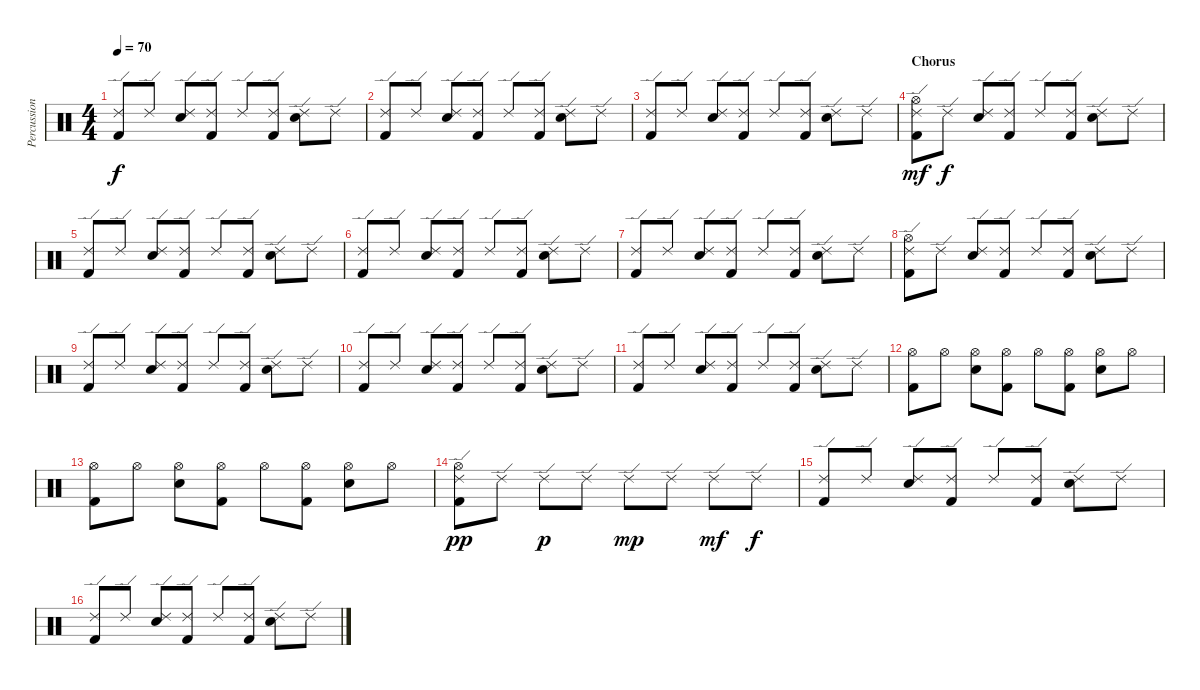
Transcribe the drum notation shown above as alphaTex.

\track ("Percussion" "Percussion") {instrument percussion}
\staff {score}
\articulation defaults
\ts (4 4)
\tempo 70
\clef neutral
\ks c
("Ride (edge) 2" "Kick (hit) 2").8{dy f} "Ride (edge) 2".8 ("Ride (edge) 2" "Electric Snare (hit)").8 ("Ride (edge) 2" "Kick (hit) 2").8 "Ride (edge) 2".8 ("Ride (edge) 2" "Kick (hit) 2").8 ("Ride (edge) 2" "Electric Snare (hit)").8 "Ride (edge) 2".8 |
("Ride (edge) 2" "Kick (hit) 2").8 "Ride (edge) 2".8 ("Ride (edge) 2" "Electric Snare (hit)").8 ("Ride (edge) 2" "Kick (hit) 2").8 "Ride (edge) 2".8 ("Ride (edge) 2" "Kick (hit) 2").8 ("Ride (edge) 2" "Electric Snare (hit)").8 "Ride (edge) 2".8 |
("Ride (edge) 2" "Kick (hit) 2").8 "Ride (edge) 2".8 ("Ride (edge) 2" "Electric Snare (hit)").8 ("Ride (edge) 2" "Kick (hit) 2").8 "Ride (edge) 2".8 ("Ride (edge) 2" "Kick (hit) 2").8 ("Ride (edge) 2" "Electric Snare (hit)").8 "Ride (edge) 2".8 |
\section ("" "Chorus")
("Ride (edge) 2" "Hi-Hat (open)" "Kick (hit) 2").8{dy mf} "Ride (edge) 2".8{dy f} ("Ride (edge) 2" "Electric Snare (hit)").8 ("Ride (edge) 2" "Kick (hit) 2").8 "Ride (edge) 2".8 ("Ride (edge) 2" "Kick (hit) 2").8 ("Ride (edge) 2" "Electric Snare (hit)").8 "Ride (edge) 2".8 |
("Ride (edge) 2" "Kick (hit) 2").8 "Ride (edge) 2".8 ("Ride (edge) 2" "Electric Snare (hit)").8 ("Ride (edge) 2" "Kick (hit) 2").8 "Ride (edge) 2".8 ("Ride (edge) 2" "Kick (hit) 2").8 ("Ride (edge) 2" "Electric Snare (hit)").8 "Ride (edge) 2".8 |
("Ride (edge) 2" "Kick (hit) 2").8 "Ride (edge) 2".8 ("Ride (edge) 2" "Electric Snare (hit)").8 ("Ride (edge) 2" "Kick (hit) 2").8 "Ride (edge) 2".8 ("Ride (edge) 2" "Kick (hit) 2").8 ("Ride (edge) 2" "Electric Snare (hit)").8 "Ride (edge) 2".8 |
("Ride (edge) 2" "Kick (hit) 2").8 "Ride (edge) 2".8 ("Ride (edge) 2" "Electric Snare (hit)").8 ("Ride (edge) 2" "Kick (hit) 2").8 "Ride (edge) 2".8 ("Ride (edge) 2" "Kick (hit) 2").8 ("Ride (edge) 2" "Electric Snare (hit)").8 "Ride (edge) 2".8 |
("Ride (edge) 2" "Hi-Hat (open)" "Kick (hit) 2").8 "Ride (edge) 2".8 ("Ride (edge) 2" "Electric Snare (hit)").8 ("Ride (edge) 2" "Kick (hit) 2").8 "Ride (edge) 2".8 ("Ride (edge) 2" "Kick (hit) 2").8 ("Ride (edge) 2" "Electric Snare (hit)").8 "Ride (edge) 2".8 |
("Ride (edge) 2" "Kick (hit) 2").8 "Ride (edge) 2".8 ("Ride (edge) 2" "Electric Snare (hit)").8 ("Ride (edge) 2" "Kick (hit) 2").8 "Ride (edge) 2".8 ("Ride (edge) 2" "Kick (hit) 2").8 ("Ride (edge) 2" "Electric Snare (hit)").8 "Ride (edge) 2".8 |
("Ride (edge) 2" "Kick (hit) 2").8 "Ride (edge) 2".8 ("Ride (edge) 2" "Electric Snare (hit)").8 ("Ride (edge) 2" "Kick (hit) 2").8 "Ride (edge) 2".8 ("Ride (edge) 2" "Kick (hit) 2").8 ("Ride (edge) 2" "Electric Snare (hit)").8 "Ride (edge) 2".8 |
("Ride (edge) 2" "Kick (hit) 2").8 "Ride (edge) 2".8 ("Ride (edge) 2" "Electric Snare (hit)").8 ("Ride (edge) 2" "Kick (hit) 2").8 "Ride (edge) 2".8 ("Ride (edge) 2" "Kick (hit) 2").8 ("Ride (edge) 2" "Electric Snare (hit)").8 "Ride (edge) 2".8 |
("Hi-Hat (open)" "Kick (hit) 2").8 "Hi-Hat (open)".8 ("Hi-Hat (open)" "Electric Snare (hit)").8 ("Hi-Hat (open)" "Kick (hit) 2").8 "Hi-Hat (open)".8 ("Hi-Hat (open)" "Kick (hit) 2").8 ("Hi-Hat (open)" "Electric Snare (hit)").8 "Hi-Hat (open)".8 |
("Hi-Hat (open)" "Kick (hit) 2").8 "Hi-Hat (open)".8 ("Hi-Hat (open)" "Electric Snare (hit)").8 ("Hi-Hat (open)" "Kick (hit) 2").8 "Hi-Hat (open)".8 ("Hi-Hat (open)" "Kick (hit) 2").8 ("Hi-Hat (open)" "Electric Snare (hit)").8 "Hi-Hat (open)".8 |
("Ride (edge) 2" "Hi-Hat (open)" "Kick (hit) 2").8{dy pp} "Ride (edge) 2".8 "Ride (edge) 2".8{dy p} "Ride (edge) 2".8 "Ride (edge) 2".8{dy mp} "Ride (edge) 2".8 "Ride (edge) 2".8{dy mf} "Ride (edge) 2".8{dy f} |
("Ride (edge) 2" "Kick (hit) 2").8 "Ride (edge) 2".8 ("Ride (edge) 2" "Electric Snare (hit)").8 ("Ride (edge) 2" "Kick (hit) 2").8 "Ride (edge) 2".8 ("Ride (edge) 2" "Kick (hit) 2").8 ("Ride (edge) 2" "Electric Snare (hit)").8 "Ride (edge) 2".8 |
("Ride (edge) 2" "Kick (hit) 2").8 "Ride (edge) 2".8 ("Ride (edge) 2" "Electric Snare (hit)").8 ("Ride (edge) 2" "Kick (hit) 2").8 "Ride (edge) 2".8 ("Ride (edge) 2" "Kick (hit) 2").8 ("Ride (edge) 2" "Electric Snare (hit)").8 "Ride (edge) 2".8
